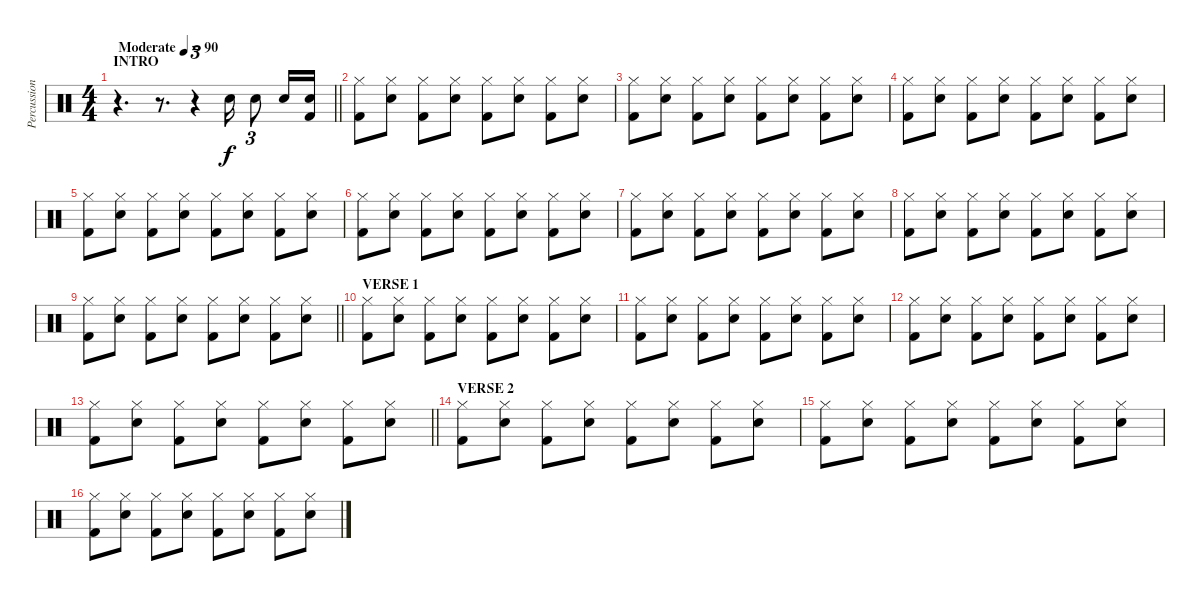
\track ("Percussions" "Percussion") {instrument percussion}
\staff {score}
\articulation defaults
\ts (4 4)
\section ("" "INTRO")
\tempo (90 "Moderate")
\clef neutral
\barLineRight lightlight
\ks c
r.4{d dy f} r.8{d} r.4{tu (3 2)} "Electric Snare (hit)".16 "Electric Snare (hit)".8{tu (3 2)} "Electric Snare (hit)".16 ("Electric Snare (hit)" "Kick (hit) 2").16 |
("Hi-Hat (closed)" "Kick (hit) 2").8 ("Hi-Hat (closed)" "Electric Snare (hit)").8 ("Hi-Hat (closed)" "Kick (hit) 2").8 ("Hi-Hat (closed)" "Electric Snare (hit)").8 ("Hi-Hat (closed)" "Kick (hit) 2").8 ("Hi-Hat (closed)" "Electric Snare (hit)").8 ("Hi-Hat (closed)" "Kick (hit) 2").8 ("Hi-Hat (closed)" "Electric Snare (hit)").8 |
("Hi-Hat (closed)" "Kick (hit) 2").8 ("Hi-Hat (closed)" "Electric Snare (hit)").8 ("Hi-Hat (closed)" "Kick (hit) 2").8 ("Hi-Hat (closed)" "Electric Snare (hit)").8 ("Hi-Hat (closed)" "Kick (hit) 2").8 ("Hi-Hat (closed)" "Electric Snare (hit)").8 ("Hi-Hat (closed)" "Kick (hit) 2").8 ("Hi-Hat (closed)" "Electric Snare (hit)").8 |
("Hi-Hat (closed)" "Kick (hit) 2").8 ("Hi-Hat (closed)" "Electric Snare (hit)").8 ("Hi-Hat (closed)" "Kick (hit) 2").8 ("Hi-Hat (closed)" "Electric Snare (hit)").8 ("Hi-Hat (closed)" "Kick (hit) 2").8 ("Hi-Hat (closed)" "Electric Snare (hit)").8 ("Hi-Hat (closed)" "Kick (hit) 2").8 ("Hi-Hat (closed)" "Electric Snare (hit)").8 |
("Hi-Hat (closed)" "Kick (hit) 2").8 ("Hi-Hat (closed)" "Electric Snare (hit)").8 ("Hi-Hat (closed)" "Kick (hit) 2").8 ("Hi-Hat (closed)" "Electric Snare (hit)").8 ("Hi-Hat (closed)" "Kick (hit) 2").8 ("Hi-Hat (closed)" "Electric Snare (hit)").8 ("Hi-Hat (closed)" "Kick (hit) 2").8 ("Hi-Hat (closed)" "Electric Snare (hit)").8 |
("Hi-Hat (closed)" "Kick (hit) 2").8 ("Hi-Hat (closed)" "Electric Snare (hit)").8 ("Hi-Hat (closed)" "Kick (hit) 2").8 ("Hi-Hat (closed)" "Electric Snare (hit)").8 ("Hi-Hat (closed)" "Kick (hit) 2").8 ("Hi-Hat (closed)" "Electric Snare (hit)").8 ("Hi-Hat (closed)" "Kick (hit) 2").8 ("Hi-Hat (closed)" "Electric Snare (hit)").8 |
("Hi-Hat (closed)" "Kick (hit) 2").8 ("Hi-Hat (closed)" "Electric Snare (hit)").8 ("Hi-Hat (closed)" "Kick (hit) 2").8 ("Hi-Hat (closed)" "Electric Snare (hit)").8 ("Hi-Hat (closed)" "Kick (hit) 2").8 ("Hi-Hat (closed)" "Electric Snare (hit)").8 ("Hi-Hat (closed)" "Kick (hit) 2").8 ("Hi-Hat (closed)" "Electric Snare (hit)").8 |
("Hi-Hat (closed)" "Kick (hit) 2").8 ("Hi-Hat (closed)" "Electric Snare (hit)").8 ("Hi-Hat (closed)" "Kick (hit) 2").8 ("Hi-Hat (closed)" "Electric Snare (hit)").8 ("Hi-Hat (closed)" "Kick (hit) 2").8 ("Hi-Hat (closed)" "Electric Snare (hit)").8 ("Hi-Hat (closed)" "Kick (hit) 2").8 ("Hi-Hat (closed)" "Electric Snare (hit)").8 |
\barLineRight lightlight
("Hi-Hat (closed)" "Kick (hit) 2").8 ("Hi-Hat (closed)" "Electric Snare (hit)").8 ("Hi-Hat (closed)" "Kick (hit) 2").8 ("Hi-Hat (closed)" "Electric Snare (hit)").8 ("Hi-Hat (closed)" "Kick (hit) 2").8 ("Hi-Hat (closed)" "Electric Snare (hit)").8 ("Hi-Hat (closed)" "Kick (hit) 2").8 ("Hi-Hat (closed)" "Electric Snare (hit)").8 |
\section ("" "VERSE 1")
("Hi-Hat (closed)" "Kick (hit) 2").8 ("Hi-Hat (closed)" "Electric Snare (hit)").8 ("Hi-Hat (closed)" "Kick (hit) 2").8 ("Hi-Hat (closed)" "Electric Snare (hit)").8 ("Hi-Hat (closed)" "Kick (hit) 2").8 ("Hi-Hat (closed)" "Electric Snare (hit)").8 ("Hi-Hat (closed)" "Kick (hit) 2").8 ("Hi-Hat (closed)" "Electric Snare (hit)").8 |
("Hi-Hat (closed)" "Kick (hit) 2").8 ("Hi-Hat (closed)" "Electric Snare (hit)").8 ("Hi-Hat (closed)" "Kick (hit) 2").8 ("Hi-Hat (closed)" "Electric Snare (hit)").8 ("Hi-Hat (closed)" "Kick (hit) 2").8 ("Hi-Hat (closed)" "Electric Snare (hit)").8 ("Hi-Hat (closed)" "Kick (hit) 2").8 ("Hi-Hat (closed)" "Electric Snare (hit)").8 |
("Hi-Hat (closed)" "Kick (hit) 2").8 ("Hi-Hat (closed)" "Electric Snare (hit)").8 ("Hi-Hat (closed)" "Kick (hit) 2").8 ("Hi-Hat (closed)" "Electric Snare (hit)").8 ("Hi-Hat (closed)" "Kick (hit) 2").8 ("Hi-Hat (closed)" "Electric Snare (hit)").8 ("Hi-Hat (closed)" "Kick (hit) 2").8 ("Hi-Hat (closed)" "Electric Snare (hit)").8 |
\barLineRight lightlight
("Hi-Hat (closed)" "Kick (hit) 2").8 ("Hi-Hat (closed)" "Electric Snare (hit)").8 ("Hi-Hat (closed)" "Kick (hit) 2").8 ("Hi-Hat (closed)" "Electric Snare (hit)").8 ("Hi-Hat (closed)" "Kick (hit) 2").8 ("Hi-Hat (closed)" "Electric Snare (hit)").8 ("Hi-Hat (closed)" "Kick (hit) 2").8 ("Hi-Hat (closed)" "Electric Snare (hit)").8 |
\section ("" "VERSE 2")
("Hi-Hat (closed)" "Kick (hit) 2").8 ("Hi-Hat (closed)" "Electric Snare (hit)").8 ("Hi-Hat (closed)" "Kick (hit) 2").8 ("Hi-Hat (closed)" "Electric Snare (hit)").8 ("Hi-Hat (closed)" "Kick (hit) 2").8 ("Hi-Hat (closed)" "Electric Snare (hit)").8 ("Hi-Hat (closed)" "Kick (hit) 2").8 ("Hi-Hat (closed)" "Electric Snare (hit)").8 |
("Hi-Hat (closed)" "Kick (hit) 2").8 ("Hi-Hat (closed)" "Electric Snare (hit)").8 ("Hi-Hat (closed)" "Kick (hit) 2").8 ("Hi-Hat (closed)" "Electric Snare (hit)").8 ("Hi-Hat (closed)" "Kick (hit) 2").8 ("Hi-Hat (closed)" "Electric Snare (hit)").8 ("Hi-Hat (closed)" "Kick (hit) 2").8 ("Hi-Hat (closed)" "Electric Snare (hit)").8 |
("Hi-Hat (closed)" "Kick (hit) 2").8 ("Hi-Hat (closed)" "Electric Snare (hit)").8 ("Hi-Hat (closed)" "Kick (hit) 2").8 ("Hi-Hat (closed)" "Electric Snare (hit)").8 ("Hi-Hat (closed)" "Kick (hit) 2").8 ("Hi-Hat (closed)" "Electric Snare (hit)").8 ("Hi-Hat (closed)" "Kick (hit) 2").8 ("Hi-Hat (closed)" "Electric Snare (hit)").8
